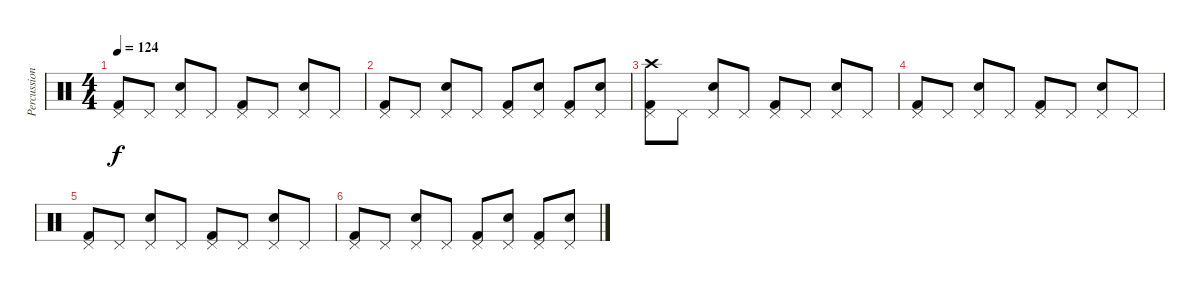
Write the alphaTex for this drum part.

\track ("Percussion" "Percussion") {instrument percussion}
\staff {score}
\articulation defaults
\ts (4 4)
\tempo 124
\clef neutral
\ks c
("Pedal Hi-Hat (hit)" "Kick (hit) 2").8{dy f} "Pedal Hi-Hat (hit)".8 ("Pedal Hi-Hat (hit)" "Electric Snare (hit)").8 "Pedal Hi-Hat (hit)".8 ("Pedal Hi-Hat (hit)" "Kick (hit) 2").8 "Pedal Hi-Hat (hit)".8 ("Pedal Hi-Hat (hit)" "Electric Snare (hit)").8 "Pedal Hi-Hat (hit)".8 |
("Pedal Hi-Hat (hit)" "Kick (hit) 2").8 "Pedal Hi-Hat (hit)".8 ("Pedal Hi-Hat (hit)" "Electric Snare (hit)").8 "Pedal Hi-Hat (hit)".8 ("Pedal Hi-Hat (hit)" "Kick (hit) 2").8 ("Pedal Hi-Hat (hit)" "Electric Snare (hit)").8 ("Pedal Hi-Hat (hit)" "Kick (hit) 2").8 ("Pedal Hi-Hat (hit)" "Electric Snare (hit)").8 |
("Crash high (hit)" "Pedal Hi-Hat (hit)" "Kick (hit) 2").8 "Pedal Hi-Hat (hit)".8 ("Pedal Hi-Hat (hit)" "Electric Snare (hit)").8 "Pedal Hi-Hat (hit)".8 ("Pedal Hi-Hat (hit)" "Kick (hit) 2").8 "Pedal Hi-Hat (hit)".8 ("Pedal Hi-Hat (hit)" "Electric Snare (hit)").8 "Pedal Hi-Hat (hit)".8 |
("Pedal Hi-Hat (hit)" "Kick (hit) 2").8 "Pedal Hi-Hat (hit)".8 ("Pedal Hi-Hat (hit)" "Electric Snare (hit)").8 "Pedal Hi-Hat (hit)".8 ("Pedal Hi-Hat (hit)" "Kick (hit) 2").8 "Pedal Hi-Hat (hit)".8 ("Pedal Hi-Hat (hit)" "Electric Snare (hit)").8 "Pedal Hi-Hat (hit)".8 |
("Pedal Hi-Hat (hit)" "Kick (hit) 2").8 "Pedal Hi-Hat (hit)".8 ("Pedal Hi-Hat (hit)" "Electric Snare (hit)").8 "Pedal Hi-Hat (hit)".8 ("Pedal Hi-Hat (hit)" "Kick (hit) 2").8 "Pedal Hi-Hat (hit)".8 ("Pedal Hi-Hat (hit)" "Electric Snare (hit)").8 "Pedal Hi-Hat (hit)".8 |
("Pedal Hi-Hat (hit)" "Kick (hit) 2").8 "Pedal Hi-Hat (hit)".8 ("Pedal Hi-Hat (hit)" "Electric Snare (hit)").8 "Pedal Hi-Hat (hit)".8 ("Pedal Hi-Hat (hit)" "Kick (hit) 2").8 ("Pedal Hi-Hat (hit)" "Electric Snare (hit)").8 ("Pedal Hi-Hat (hit)" "Kick (hit) 2").8 ("Pedal Hi-Hat (hit)" "Electric Snare (hit)").8
